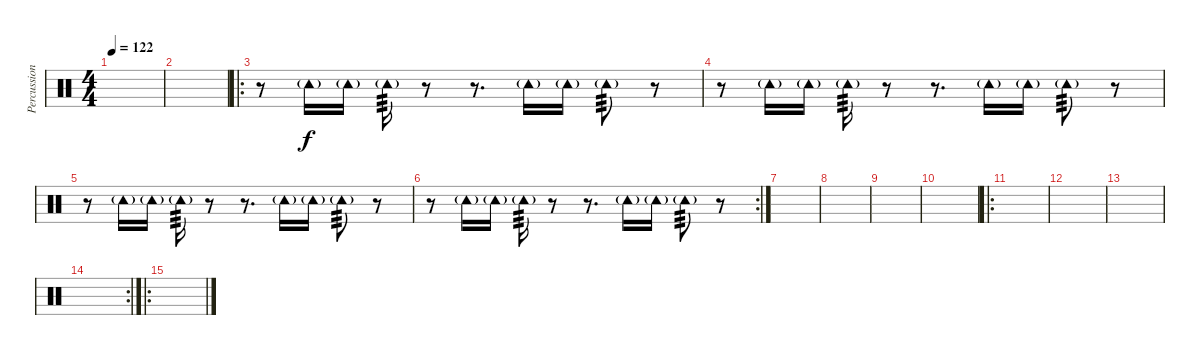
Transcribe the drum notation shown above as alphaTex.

\track ("Percussion" "Percussion") {instrument percussion}
\staff {score}
\articulation defaults
\ts (4 4)
\tempo 122
\clef neutral
\ks c
|
|
\ro
r.8 "Tambourine (hit)"{g}.16 "Tambourine (hit)"{g}.16 "Tambourine (hit)"{g}.16{tp 3} r.8 r.8{d} "Tambourine (hit)"{g}.16 "Tambourine (hit)"{g}.16 "Tambourine (hit)"{g}.8{tp 3} r.8 |
r.8 "Tambourine (hit)"{g}.16 "Tambourine (hit)"{g}.16 "Tambourine (hit)"{g}.16{tp 3} r.8 r.8{d} "Tambourine (hit)"{g}.16 "Tambourine (hit)"{g}.16 "Tambourine (hit)"{g}.8{tp 3} r.8 |
r.8 "Tambourine (hit)"{g}.16 "Tambourine (hit)"{g}.16 "Tambourine (hit)"{g}.16{tp 3} r.8 r.8{d} "Tambourine (hit)"{g}.16 "Tambourine (hit)"{g}.16 "Tambourine (hit)"{g}.8{tp 3} r.8 |
\rc 2
r.8 "Tambourine (hit)"{g}.16 "Tambourine (hit)"{g}.16 "Tambourine (hit)"{g}.16{tp 3} r.8 r.8{d} "Tambourine (hit)"{g}.16 "Tambourine (hit)"{g}.16 "Tambourine (hit)"{g}.8{tp 3} r.8 |
|
|
|
|
\ro
|
|
|
\rc 2
|
\ro
